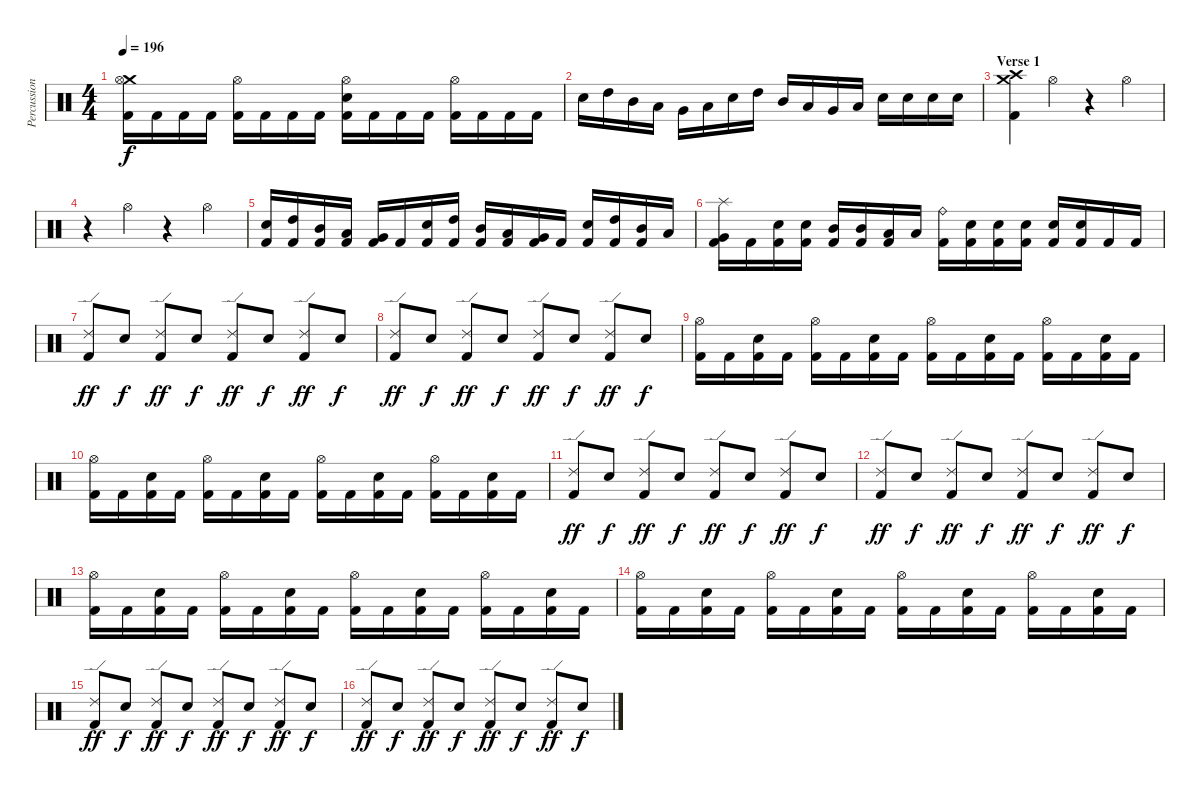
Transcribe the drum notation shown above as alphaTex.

\track ("Percussions" "Percussion") {instrument percussion}
\staff {score}
\articulation defaults
\ts (4 4)
\tempo 196
\clef neutral
\ks c
("Crash medium (hit)" "Hi-Hat (open)" "Kick (hit) 2").16{dy f} "Kick (hit) 2".16 "Kick (hit) 2".16 "Kick (hit) 2".16 ("Hi-Hat (open)" "Kick (hit) 2").16 "Kick (hit) 2".16 "Kick (hit) 2".16 "Kick (hit) 2".16 ("Hi-Hat (open)" "Electric Snare (hit)" "Kick (hit) 2").16 "Kick (hit) 2".16 "Kick (hit) 2".16 "Kick (hit) 2".16 ("Hi-Hat (open)" "Kick (hit) 2").16 "Kick (hit) 2".16 "Kick (hit) 2".16 "Kick (hit) 2".16 |
"Electric Snare (hit)".16 "High Tom (hit)".16 "Mid Tom (hit)".16 "Low Tom (hit)".16 "Very Low Tom (hit)".16 "Low Floor Tom (hit)".16 "Electric Snare (hit)".16 "High Tom (hit)".16 "Mid Tom (hit)".16 "Low Tom (hit)".16 "Very Low Tom (hit)".16 "Low Floor Tom (hit)".16 "Electric Snare (hit)".16 "Electric Snare (hit)".16 "Electric Snare (hit)".16 "Electric Snare (hit)".16 |
\section ("" "Verse 1")
("Crash medium (hit)" "Crash high (hit)" "Kick (hit) 2").4 "Hi-Hat (open)".4 r.4 "Hi-Hat (open)".4 |
r.4 "Hi-Hat (open)".4 r.4 "Hi-Hat (open)".4 |
("Electric Snare (hit)" "Kick (hit) 2").16 ("High Tom (hit)" "Kick (hit) 2").16 ("Mid Tom (hit)" "Kick (hit) 2").16 ("Low Tom (hit)" "Kick (hit) 2").16 ("Very Low Tom (hit)" "Kick (hit) 2").16 "Kick (hit) 2".16 ("Electric Snare (hit)" "Kick (hit) 2").16 ("High Tom (hit)" "Kick (hit) 2").16 ("Mid Tom (hit)" "Kick (hit) 2").16 ("Low Tom (hit)" "Kick (hit) 2").16 ("Very Low Tom (hit)" "Kick (hit) 2").16 "Kick (hit) 2".16 ("Electric Snare (hit)" "Kick (hit) 2").16 ("High Tom (hit)" "Kick (hit) 2").16 ("Mid Tom (hit)" "Kick (hit) 2").16 "Low Tom (hit)".16 |
("Splash (hit)" "Very Low Tom (hit)" "Kick (hit) 2").16 "Kick (hit) 2".16 ("Electric Snare (hit)" "Kick (hit) 2").16 ("Electric Snare (hit)" "Kick (hit) 2").16 ("Mid Tom (hit)" "Kick (hit) 2").16 ("Mid Tom (hit)" "Kick (hit) 2").16 ("Low Tom (hit)" "Kick (hit) 2").16 "Low Tom (hit)".16 ("Ride (bell)" "Kick (hit) 2").16 ("Electric Snare (hit)" "Kick (hit) 2").16 ("Electric Snare (hit)" "Kick (hit) 2").16 ("Electric Snare (hit)" "Kick (hit) 2").16 ("Electric Snare (hit)" "Kick (hit) 2").16 ("Electric Snare (hit)" "Kick (hit) 2").16 "Kick (hit) 2".16 "Kick (hit) 2".16 |
("Ride (edge) 2" "Kick (hit) 2").8{dy ff} "Electric Snare (hit)".8{dy f} ("Ride (edge) 2" "Kick (hit) 2").8{dy ff} "Electric Snare (hit)".8{dy f} ("Ride (edge) 2" "Kick (hit) 2").8{dy ff} "Electric Snare (hit)".8{dy f} ("Ride (edge) 2" "Kick (hit) 2").8{dy ff} "Electric Snare (hit)".8{dy f} |
("Ride (edge) 2" "Kick (hit) 2").8{dy ff} "Electric Snare (hit)".8{dy f} ("Ride (edge) 2" "Kick (hit) 2").8{dy ff} "Electric Snare (hit)".8{dy f} ("Ride (edge) 2" "Kick (hit) 2").8{dy ff} "Electric Snare (hit)".8{dy f} ("Ride (edge) 2" "Kick (hit) 2").8{dy ff} "Electric Snare (hit)".8{dy f} |
("Hi-Hat (open)" "Kick (hit) 2").16 "Kick (hit) 2".16 ("Electric Snare (hit)" "Kick (hit) 2").16 "Kick (hit) 2".16 ("Hi-Hat (open)" "Kick (hit) 2").16 "Kick (hit) 2".16 ("Electric Snare (hit)" "Kick (hit) 2").16 "Kick (hit) 2".16 ("Hi-Hat (open)" "Kick (hit) 2").16 "Kick (hit) 2".16 ("Electric Snare (hit)" "Kick (hit) 2").16 "Kick (hit) 2".16 ("Hi-Hat (open)" "Kick (hit) 2").16 "Kick (hit) 2".16 ("Electric Snare (hit)" "Kick (hit) 2").16 "Kick (hit) 2".16 |
("Hi-Hat (open)" "Kick (hit) 2").16 "Kick (hit) 2".16 ("Electric Snare (hit)" "Kick (hit) 2").16 "Kick (hit) 2".16 ("Hi-Hat (open)" "Kick (hit) 2").16 "Kick (hit) 2".16 ("Electric Snare (hit)" "Kick (hit) 2").16 "Kick (hit) 2".16 ("Hi-Hat (open)" "Kick (hit) 2").16 "Kick (hit) 2".16 ("Electric Snare (hit)" "Kick (hit) 2").16 "Kick (hit) 2".16 ("Hi-Hat (open)" "Kick (hit) 2").16 "Kick (hit) 2".16 ("Electric Snare (hit)" "Kick (hit) 2").16 "Kick (hit) 2".16 |
("Ride (edge) 2" "Kick (hit) 2").8{dy ff} "Electric Snare (hit)".8{dy f} ("Ride (edge) 2" "Kick (hit) 2").8{dy ff} "Electric Snare (hit)".8{dy f} ("Ride (edge) 2" "Kick (hit) 2").8{dy ff} "Electric Snare (hit)".8{dy f} ("Ride (edge) 2" "Kick (hit) 2").8{dy ff} "Electric Snare (hit)".8{dy f} |
("Ride (edge) 2" "Kick (hit) 2").8{dy ff} "Electric Snare (hit)".8{dy f} ("Ride (edge) 2" "Kick (hit) 2").8{dy ff} "Electric Snare (hit)".8{dy f} ("Ride (edge) 2" "Kick (hit) 2").8{dy ff} "Electric Snare (hit)".8{dy f} ("Ride (edge) 2" "Kick (hit) 2").8{dy ff} "Electric Snare (hit)".8{dy f} |
("Hi-Hat (open)" "Kick (hit) 2").16 "Kick (hit) 2".16 ("Electric Snare (hit)" "Kick (hit) 2").16 "Kick (hit) 2".16 ("Hi-Hat (open)" "Kick (hit) 2").16 "Kick (hit) 2".16 ("Electric Snare (hit)" "Kick (hit) 2").16 "Kick (hit) 2".16 ("Hi-Hat (open)" "Kick (hit) 2").16 "Kick (hit) 2".16 ("Electric Snare (hit)" "Kick (hit) 2").16 "Kick (hit) 2".16 ("Hi-Hat (open)" "Kick (hit) 2").16 "Kick (hit) 2".16 ("Electric Snare (hit)" "Kick (hit) 2").16 "Kick (hit) 2".16 |
("Hi-Hat (open)" "Kick (hit) 2").16 "Kick (hit) 2".16 ("Electric Snare (hit)" "Kick (hit) 2").16 "Kick (hit) 2".16 ("Hi-Hat (open)" "Kick (hit) 2").16 "Kick (hit) 2".16 ("Electric Snare (hit)" "Kick (hit) 2").16 "Kick (hit) 2".16 ("Hi-Hat (open)" "Kick (hit) 2").16 "Kick (hit) 2".16 ("Electric Snare (hit)" "Kick (hit) 2").16 "Kick (hit) 2".16 ("Hi-Hat (open)" "Kick (hit) 2").16 "Kick (hit) 2".16 ("Electric Snare (hit)" "Kick (hit) 2").16 "Kick (hit) 2".16 |
("Ride (edge) 2" "Kick (hit) 2").8{dy ff} "Electric Snare (hit)".8{dy f} ("Ride (edge) 2" "Kick (hit) 2").8{dy ff} "Electric Snare (hit)".8{dy f} ("Ride (edge) 2" "Kick (hit) 2").8{dy ff} "Electric Snare (hit)".8{dy f} ("Ride (edge) 2" "Kick (hit) 2").8{dy ff} "Electric Snare (hit)".8{dy f} |
("Ride (edge) 2" "Kick (hit) 2").8{dy ff} "Electric Snare (hit)".8{dy f} ("Ride (edge) 2" "Kick (hit) 2").8{dy ff} "Electric Snare (hit)".8{dy f} ("Ride (edge) 2" "Kick (hit) 2").8{dy ff} "Electric Snare (hit)".8{dy f} ("Ride (edge) 2" "Kick (hit) 2").8{dy ff} "Electric Snare (hit)".8{dy f}
